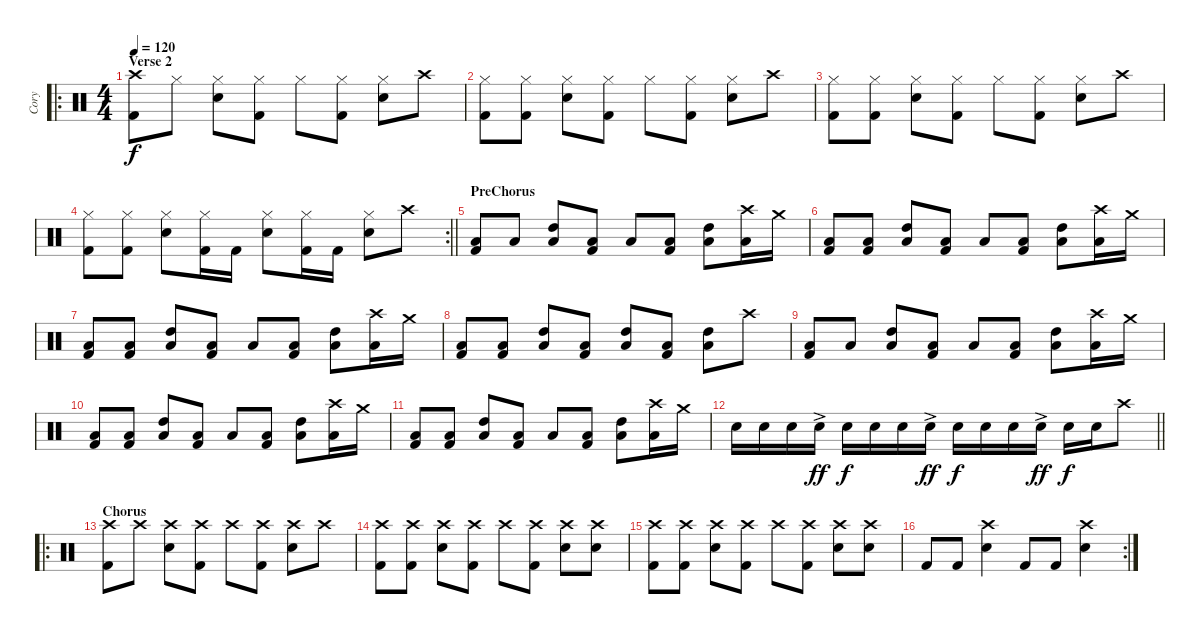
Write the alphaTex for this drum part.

\track ("Cory" "Cory") {instrument percussion}
\staff {score}
\articulation defaults
\ro
\ts (4 4)
\section ("" "Verse 2")
\tempo 120
\clef neutral
\ks c
("Crash high (hit)" "Kick (hit) 2").8{dy f} "Hi-Hat (closed)".8 ("Hi-Hat (closed)" "Snare (hit) 2").8 ("Hi-Hat (closed)" "Kick (hit) 2").8 "Hi-Hat (closed)".8 ("Hi-Hat (closed)" "Kick (hit) 2").8 ("Hi-Hat (closed)" "Snare (hit) 2").8 "Crash high (hit)".8 |
("Hi-Hat (closed)" "Kick (hit) 2").8 ("Hi-Hat (closed)" "Kick (hit) 2").8 ("Hi-Hat (closed)" "Snare (hit) 2").8 ("Hi-Hat (closed)" "Kick (hit) 2").8 "Hi-Hat (closed)".8 ("Hi-Hat (closed)" "Kick (hit) 2").8 ("Hi-Hat (closed)" "Snare (hit) 2").8 "Crash high (hit)".8 |
("Hi-Hat (closed)" "Kick (hit) 2").8 ("Hi-Hat (closed)" "Kick (hit) 2").8 ("Hi-Hat (closed)" "Snare (hit) 2").8 ("Hi-Hat (closed)" "Kick (hit) 2").8 "Hi-Hat (closed)".8 ("Hi-Hat (closed)" "Kick (hit) 2").8 ("Hi-Hat (closed)" "Snare (hit) 2").8 "Crash high (hit)".8 |
\rc 2
\barLineRight lightlight
("Hi-Hat (closed)" "Kick (hit) 2").8 ("Hi-Hat (closed)" "Kick (hit) 2").8 ("Hi-Hat (closed)" "Snare (hit) 2").8 ("Hi-Hat (closed)" "Kick (hit) 2").16 "Kick (hit) 2".16 ("Hi-Hat (closed)" "Snare (hit) 2").8 ("Hi-Hat (closed)" "Kick (hit) 2").16 "Kick (hit) 2".16 ("Hi-Hat (closed)" "Snare (hit) 2").8 "Crash high (hit)".8 |
\section ("" "PreChorus")
("Low Tom (hit)" "Kick (hit) 2").8 "Low Tom (hit)".8 ("High Tom (hit)" "Low Tom (hit)").8 ("Low Tom (hit)" "Kick (hit) 2").8 "Low Tom (hit)".8 ("Low Tom (hit)" "Kick (hit) 2").8 ("High Tom (hit)" "Low Tom (hit)").8 ("Crash high (hit)" "Low Tom (hit)").16 "Crash medium (hit)".16 |
("Low Tom (hit)" "Kick (hit) 2").8 ("Low Tom (hit)" "Kick (hit) 2").8 ("High Tom (hit)" "Low Tom (hit)").8 ("Low Tom (hit)" "Kick (hit) 2").8 "Low Tom (hit)".8 ("Low Tom (hit)" "Kick (hit) 2").8 ("High Tom (hit)" "Low Tom (hit)").8 ("Crash high (hit)" "Low Tom (hit)").16 "Crash medium (hit)".16 |
("Low Tom (hit)" "Kick (hit) 2").8 ("Low Tom (hit)" "Kick (hit) 2").8 ("High Tom (hit)" "Low Tom (hit)").8 ("Low Tom (hit)" "Kick (hit) 2").8 "Low Tom (hit)".8 ("Low Tom (hit)" "Kick (hit) 2").8 ("High Tom (hit)" "Low Tom (hit)").8 ("Crash high (hit)" "Low Tom (hit)").16 "Crash medium (hit)".16 |
("Low Tom (hit)" "Kick (hit) 2").8 ("Low Tom (hit)" "Kick (hit) 2").8 ("High Tom (hit)" "Low Tom (hit)").8 ("Low Tom (hit)" "Kick (hit) 2").8 ("High Tom (hit)" "Low Tom (hit)").8 ("Low Tom (hit)" "Kick (hit) 2").8 ("High Tom (hit)" "Low Tom (hit)").8 "Crash high (hit)".8 |
("Low Tom (hit)" "Kick (hit) 2").8 "Low Tom (hit)".8 ("High Tom (hit)" "Low Tom (hit)").8 ("Low Tom (hit)" "Kick (hit) 2").8 "Low Tom (hit)".8 ("Low Tom (hit)" "Kick (hit) 2").8 ("High Tom (hit)" "Low Tom (hit)").8 ("Crash high (hit)" "Low Tom (hit)").16 "Crash medium (hit)".16 |
("Low Tom (hit)" "Kick (hit) 2").8 ("Low Tom (hit)" "Kick (hit) 2").8 ("High Tom (hit)" "Low Tom (hit)").8 ("Low Tom (hit)" "Kick (hit) 2").8 "Low Tom (hit)".8 ("Low Tom (hit)" "Kick (hit) 2").8 ("High Tom (hit)" "Low Tom (hit)").8 ("Crash high (hit)" "Low Tom (hit)").16 "Crash medium (hit)".16 |
("Low Tom (hit)" "Kick (hit) 2").8 ("Low Tom (hit)" "Kick (hit) 2").8 ("High Tom (hit)" "Low Tom (hit)").8 ("Low Tom (hit)" "Kick (hit) 2").8 "Low Tom (hit)".8 ("Low Tom (hit)" "Kick (hit) 2").8 ("High Tom (hit)" "Low Tom (hit)").8 ("Crash high (hit)" "Low Tom (hit)").16 "Crash medium (hit)".16 |
\barLineRight lightlight "Snare (hit) 2".16 "Snare (hit) 2".16 "Snare (hit) 2".16 "Snare (hit) 2"{ac}.16{dy ff} "Snare (hit) 2".16{dy f} "Snare (hit) 2".16 "Snare (hit) 2".16 "Snare (hit) 2"{ac}.16{dy ff} "Snare (hit) 2".16{dy f} "Snare (hit) 2".16 "Snare (hit) 2".16 "Snare (hit) 2"{ac}.16{dy ff} "Snare (hit) 2".16{dy f} "Snare (hit) 2".16 "Crash high (hit)".8
|
\ro
\section ("" "Chorus")
("Crash high (hit)" "Kick (hit) 2").8 "Crash high (hit)".8 ("Crash high (hit)" "Snare (hit) 2").8 ("Crash high (hit)" "Kick (hit) 2").8 "Crash high (hit)".8 ("Crash high (hit)" "Kick (hit) 2").8 ("Crash high (hit)" "Snare (hit) 2").8 "Crash high (hit)".8 |
("Crash high (hit)" "Kick (hit) 2").8 ("Crash high (hit)" "Kick (hit) 2").8 ("Crash high (hit)" "Snare (hit) 2").8 ("Crash high (hit)" "Kick (hit) 2").8 "Crash high (hit)".8 ("Crash high (hit)" "Kick (hit) 2").8 ("Crash high (hit)" "Snare (hit) 2").8 ("Crash high (hit)" "Snare (hit) 2").8 |
("Crash high (hit)" "Kick (hit) 2").8 ("Crash high (hit)" "Kick (hit) 2").8 ("Crash high (hit)" "Snare (hit) 2").8 ("Crash high (hit)" "Kick (hit) 2").8 "Crash high (hit)".8 ("Crash high (hit)" "Kick (hit) 2").8 ("Crash high (hit)" "Snare (hit) 2").8 ("Crash high (hit)" "Snare (hit) 2").8 |
\rc 2 "Kick (hit) 2".8 "Kick (hit) 2".8
("Crash high (hit)" "Snare (hit) 2").4 "Kick (hit) 2".8 "Kick (hit) 2".8 ("Crash high (hit)" "Snare (hit) 2").4
